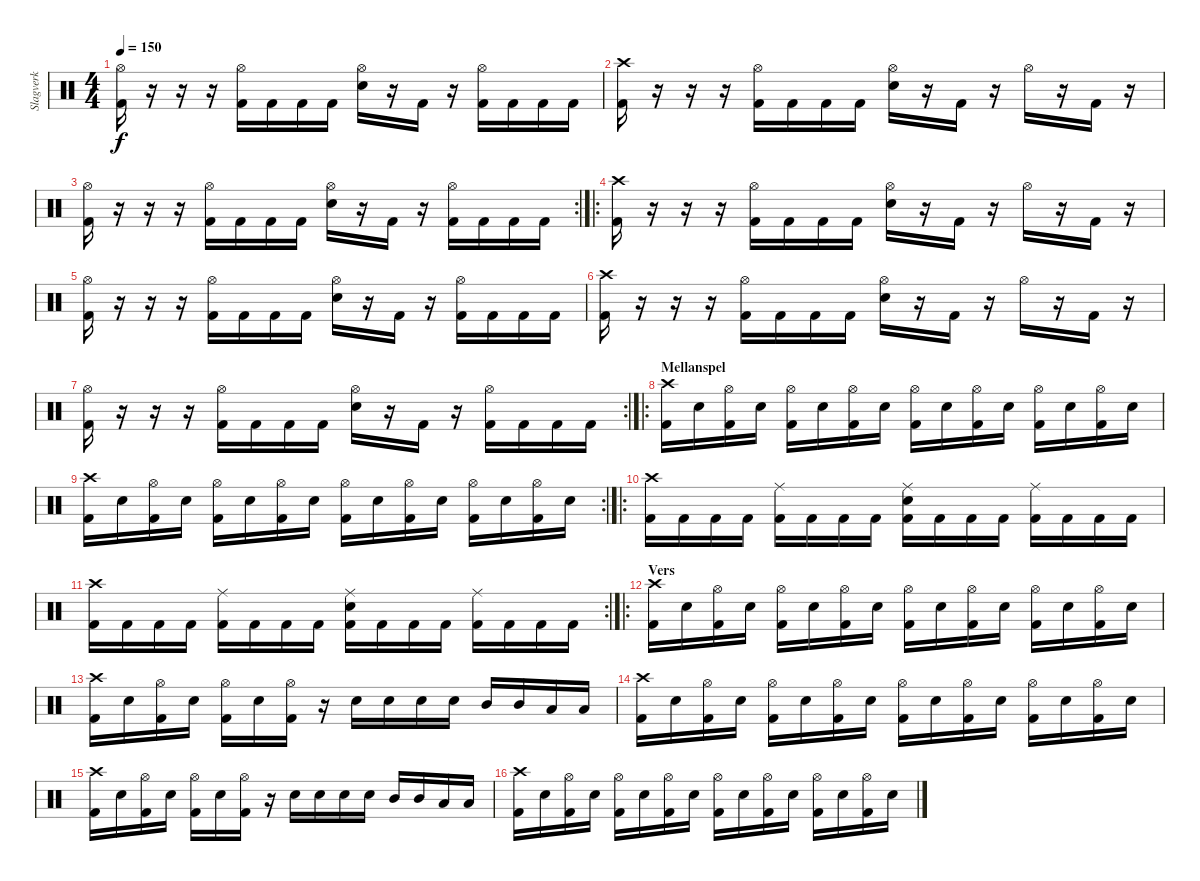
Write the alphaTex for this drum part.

\track ("Slagverk" "Slagverk") {instrument percussion}
\staff {score}
\articulation defaults
\ts (4 4)
\tempo 150
\clef neutral
\ks c
("Kick (hit) 2" "Hi-Hat (open)").16{dy f} r.16 r.16 r.16 ("Kick (hit) 2" "Hi-Hat (open)").16 "Kick (hit) 2".16 "Kick (hit) 2".16 "Kick (hit) 2".16 ("Snare (hit) 2" "Hi-Hat (open)").16 r.16 "Kick (hit) 2".16 r.16 ("Kick (hit) 2" "Hi-Hat (open)").16 "Kick (hit) 2".16 "Kick (hit) 2".16 "Kick (hit) 2".16 |
("Kick (hit) 2" "Crash high (hit)").16 r.16 r.16 r.16 ("Kick (hit) 2" "Hi-Hat (open)").16 "Kick (hit) 2".16 "Kick (hit) 2".16 "Kick (hit) 2".16 ("Snare (hit) 2" "Hi-Hat (open)").16 r.16 "Kick (hit) 2".16 r.16 "Hi-Hat (open)".16 r.16 "Kick (hit) 2".16 r.16 |
\rc 2
("Kick (hit) 2" "Hi-Hat (open)").16 r.16 r.16 r.16 ("Kick (hit) 2" "Hi-Hat (open)").16 "Kick (hit) 2".16 "Kick (hit) 2".16 "Kick (hit) 2".16 ("Snare (hit) 2" "Hi-Hat (open)").16 r.16 "Kick (hit) 2".16 r.16 ("Kick (hit) 2" "Hi-Hat (open)").16 "Kick (hit) 2".16 "Kick (hit) 2".16 "Kick (hit) 2".16 |
\ro
("Kick (hit) 2" "Crash high (hit)").16 r.16 r.16 r.16 ("Kick (hit) 2" "Hi-Hat (open)").16 "Kick (hit) 2".16 "Kick (hit) 2".16 "Kick (hit) 2".16 ("Snare (hit) 2" "Hi-Hat (open)").16 r.16 "Kick (hit) 2".16 r.16 "Hi-Hat (open)".16 r.16 "Kick (hit) 2".16 r.16 |
("Kick (hit) 2" "Hi-Hat (open)").16 r.16 r.16 r.16 ("Kick (hit) 2" "Hi-Hat (open)").16 "Kick (hit) 2".16 "Kick (hit) 2".16 "Kick (hit) 2".16 ("Snare (hit) 2" "Hi-Hat (open)").16 r.16 "Kick (hit) 2".16 r.16 ("Kick (hit) 2" "Hi-Hat (open)").16 "Kick (hit) 2".16 "Kick (hit) 2".16 "Kick (hit) 2".16 |
("Kick (hit) 2" "Crash high (hit)").16 r.16 r.16 r.16 ("Kick (hit) 2" "Hi-Hat (open)").16 "Kick (hit) 2".16 "Kick (hit) 2".16 "Kick (hit) 2".16 ("Snare (hit) 2" "Hi-Hat (open)").16 r.16 "Kick (hit) 2".16 r.16 "Hi-Hat (open)".16 r.16 "Kick (hit) 2".16 r.16 |
\rc 2
("Kick (hit) 2" "Hi-Hat (open)").16 r.16 r.16 r.16 ("Kick (hit) 2" "Hi-Hat (open)").16 "Kick (hit) 2".16 "Kick (hit) 2".16 "Kick (hit) 2".16 ("Snare (hit) 2" "Hi-Hat (open)").16 r.16 "Kick (hit) 2".16 r.16 ("Kick (hit) 2" "Hi-Hat (open)").16 "Kick (hit) 2".16 "Kick (hit) 2".16 "Kick (hit) 2".16 |
\ro
\section ("" "Mellanspel")
("Kick (hit) 2" "Crash high (hit)").16 "Snare (hit) 2".16 ("Kick (hit) 2" "Hi-Hat (open)").16 "Snare (hit) 2".16 ("Kick (hit) 2" "Hi-Hat (open)").16 "Snare (hit) 2".16 ("Kick (hit) 2" "Hi-Hat (open)").16 "Snare (hit) 2".16 ("Kick (hit) 2" "Hi-Hat (open)").16 "Snare (hit) 2".16 ("Kick (hit) 2" "Hi-Hat (open)").16 "Snare (hit) 2".16 ("Kick (hit) 2" "Hi-Hat (open)").16 "Snare (hit) 2".16 ("Kick (hit) 2" "Hi-Hat (open)").16 "Snare (hit) 2".16 |
\rc 2
("Kick (hit) 2" "Crash high (hit)").16 "Snare (hit) 2".16 ("Kick (hit) 2" "Hi-Hat (open)").16 "Snare (hit) 2".16 ("Kick (hit) 2" "Hi-Hat (open)").16 "Snare (hit) 2".16 ("Kick (hit) 2" "Hi-Hat (open)").16 "Snare (hit) 2".16 ("Kick (hit) 2" "Hi-Hat (open)").16 "Snare (hit) 2".16 ("Kick (hit) 2" "Hi-Hat (open)").16 "Snare (hit) 2".16 ("Kick (hit) 2" "Hi-Hat (open)").16 "Snare (hit) 2".16 ("Kick (hit) 2" "Hi-Hat (open)").16 "Snare (hit) 2".16 |
\ro
("Kick (hit) 2" "Crash high (hit)").16 "Kick (hit) 2".16 "Kick (hit) 2".16 "Kick (hit) 2".16 ("Kick (hit) 2" "Ride (middle)").16 "Kick (hit) 2".16 "Kick (hit) 2".16 "Kick (hit) 2".16 ("Kick (hit) 2" "Snare (hit) 2" "Ride (middle)").16 "Kick (hit) 2".16 "Kick (hit) 2".16 "Kick (hit) 2".16 ("Kick (hit) 2" "Ride (middle)").16 "Kick (hit) 2".16 "Kick (hit) 2".16 "Kick (hit) 2".16 |
\rc 2
("Kick (hit) 2" "Crash high (hit)").16 "Kick (hit) 2".16 "Kick (hit) 2".16 "Kick (hit) 2".16 ("Kick (hit) 2" "Ride (middle)").16 "Kick (hit) 2".16 "Kick (hit) 2".16 "Kick (hit) 2".16 ("Kick (hit) 2" "Snare (hit) 2" "Ride (middle)").16 "Kick (hit) 2".16 "Kick (hit) 2".16 "Kick (hit) 2".16 ("Kick (hit) 2" "Ride (middle)").16 "Kick (hit) 2".16 "Kick (hit) 2".16 "Kick (hit) 2".16 |
\ro
\section ("" "Vers")
("Kick (hit) 2" "Crash high (hit)").16 "Snare (hit) 2".16 ("Kick (hit) 2" "Hi-Hat (open)").16 "Snare (hit) 2".16 ("Kick (hit) 2" "Hi-Hat (open)").16 "Snare (hit) 2".16 ("Kick (hit) 2" "Hi-Hat (open)").16 "Snare (hit) 2".16 ("Kick (hit) 2" "Hi-Hat (open)").16 "Snare (hit) 2".16 ("Kick (hit) 2" "Hi-Hat (open)").16 "Snare (hit) 2".16 ("Kick (hit) 2" "Hi-Hat (open)").16 "Snare (hit) 2".16 ("Kick (hit) 2" "Hi-Hat (open)").16 "Snare (hit) 2".16 |
("Kick (hit) 2" "Crash high (hit)").16 "Snare (hit) 2".16 ("Kick (hit) 2" "Hi-Hat (open)").16 "Snare (hit) 2".16 ("Kick (hit) 2" "Hi-Hat (open)").16 "Snare (hit) 2".16 ("Kick (hit) 2" "Hi-Hat (open)").16 r.16 "Snare (hit) 2".16 "Snare (hit) 2".16 "Snare (hit) 2".16 "Snare (hit) 2".16 "Mid Tom (hit)".16 "Mid Tom (hit)".16 "Low Tom (hit)".16 "Low Tom (hit)".16 |
("Kick (hit) 2" "Crash high (hit)").16 "Snare (hit) 2".16 ("Kick (hit) 2" "Hi-Hat (open)").16 "Snare (hit) 2".16 ("Kick (hit) 2" "Hi-Hat (open)").16 "Snare (hit) 2".16 ("Kick (hit) 2" "Hi-Hat (open)").16 "Snare (hit) 2".16 ("Kick (hit) 2" "Hi-Hat (open)").16 "Snare (hit) 2".16 ("Kick (hit) 2" "Hi-Hat (open)").16 "Snare (hit) 2".16 ("Kick (hit) 2" "Hi-Hat (open)").16 "Snare (hit) 2".16 ("Kick (hit) 2" "Hi-Hat (open)").16 "Snare (hit) 2".16 |
("Kick (hit) 2" "Crash high (hit)").16 "Snare (hit) 2".16 ("Kick (hit) 2" "Hi-Hat (open)").16 "Snare (hit) 2".16 ("Kick (hit) 2" "Hi-Hat (open)").16 "Snare (hit) 2".16 ("Kick (hit) 2" "Hi-Hat (open)").16 r.16 "Snare (hit) 2".16 "Snare (hit) 2".16 "Snare (hit) 2".16 "Snare (hit) 2".16 "Mid Tom (hit)".16 "Mid Tom (hit)".16 "Low Tom (hit)".16 "Low Tom (hit)".16 |
("Kick (hit) 2" "Crash high (hit)").16 "Snare (hit) 2".16 ("Kick (hit) 2" "Hi-Hat (open)").16 "Snare (hit) 2".16 ("Kick (hit) 2" "Hi-Hat (open)").16 "Snare (hit) 2".16 ("Kick (hit) 2" "Hi-Hat (open)").16 "Snare (hit) 2".16 ("Kick (hit) 2" "Hi-Hat (open)").16 "Snare (hit) 2".16 ("Kick (hit) 2" "Hi-Hat (open)").16 "Snare (hit) 2".16 ("Kick (hit) 2" "Hi-Hat (open)").16 "Snare (hit) 2".16 ("Kick (hit) 2" "Hi-Hat (open)").16 "Snare (hit) 2".16
